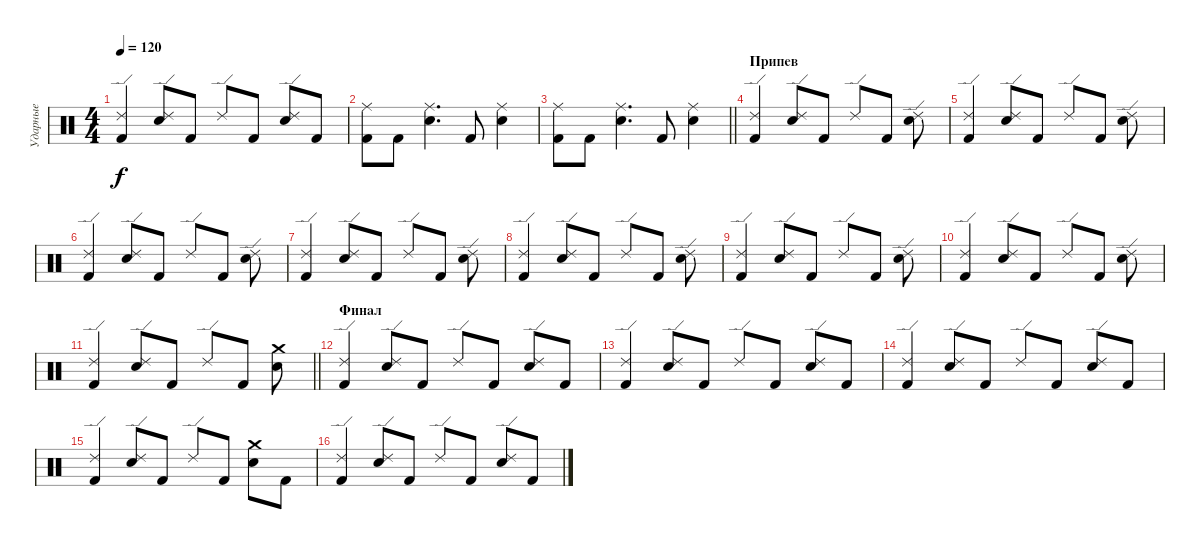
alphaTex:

\track ("Ударные" "Ударные") {instrument percussion}
\staff {score}
\articulation defaults
\ts (4 4)
\tempo 120
\clef neutral
\ks c
("Kick (hit) 2" "Ride (edge) 2").4{dy f} ("Electric Snare (hit)" "Ride (edge) 2").8 "Kick (hit) 2".8 "Ride (edge) 2".8 "Kick (hit) 2".8 ("Electric Snare (hit)" "Ride (edge) 2").8 "Kick (hit) 2".8 |
("Kick (hit) 2" "Ride (middle)").8 "Kick (hit) 2".8 ("Electric Snare (hit)" "Ride (middle)").4{d} "Kick (hit) 2".8 ("Electric Snare (hit)" "Ride (middle)").4 |
\barLineRight lightlight
("Kick (hit) 2" "Ride (middle)").8 "Kick (hit) 2".8 ("Electric Snare (hit)" "Ride (middle)").4{d} "Kick (hit) 2".8 ("Electric Snare (hit)" "Ride (middle)").4 |
\section ("" "Припев")
("Kick (hit) 2" "Ride (edge) 2").4 ("Electric Snare (hit)" "Ride (edge) 2").8 "Kick (hit) 2".8 "Ride (edge) 2".8 "Kick (hit) 2".8 ("Electric Snare (hit)" "Ride (edge) 2").8 |
("Kick (hit) 2" "Ride (edge) 2").4 ("Electric Snare (hit)" "Ride (edge) 2").8 "Kick (hit) 2".8 "Ride (edge) 2".8 "Kick (hit) 2".8 ("Electric Snare (hit)" "Ride (edge) 2").8 |
("Kick (hit) 2" "Ride (edge) 2").4 ("Electric Snare (hit)" "Ride (edge) 2").8 "Kick (hit) 2".8 "Ride (edge) 2".8 "Kick (hit) 2".8 ("Electric Snare (hit)" "Ride (edge) 2").8 |
("Kick (hit) 2" "Ride (edge) 2").4 ("Electric Snare (hit)" "Ride (edge) 2").8 "Kick (hit) 2".8 "Ride (edge) 2".8 "Kick (hit) 2".8 ("Electric Snare (hit)" "Ride (edge) 2").8 |
("Kick (hit) 2" "Ride (edge) 2").4 ("Electric Snare (hit)" "Ride (edge) 2").8 "Kick (hit) 2".8 "Ride (edge) 2".8 "Kick (hit) 2".8 ("Electric Snare (hit)" "Ride (edge) 2").8 |
("Kick (hit) 2" "Ride (edge) 2").4 ("Electric Snare (hit)" "Ride (edge) 2").8 "Kick (hit) 2".8 "Ride (edge) 2".8 "Kick (hit) 2".8 ("Electric Snare (hit)" "Ride (edge) 2").8 |
("Kick (hit) 2" "Ride (edge) 2").4 ("Electric Snare (hit)" "Ride (edge) 2").8 "Kick (hit) 2".8 "Ride (edge) 2".8 "Kick (hit) 2".8 ("Electric Snare (hit)" "Ride (edge) 2").8 |
\barLineRight lightlight
("Kick (hit) 2" "Ride (edge) 2").4 ("Electric Snare (hit)" "Ride (edge) 2").8 "Kick (hit) 2".8 "Ride (edge) 2".8 "Kick (hit) 2".8 ("Electric Snare (hit)" "Crash medium (hit)").8 |
\section ("" "Финал")
("Kick (hit) 2" "Ride (edge) 2").4 ("Electric Snare (hit)" "Ride (edge) 2").8 "Kick (hit) 2".8 "Ride (edge) 2".8 "Kick (hit) 2".8 ("Electric Snare (hit)" "Ride (edge) 2").8 "Kick (hit) 2".8 |
("Kick (hit) 2" "Ride (edge) 2").4 ("Electric Snare (hit)" "Ride (edge) 2").8 "Kick (hit) 2".8 "Ride (edge) 2".8 "Kick (hit) 2".8 ("Electric Snare (hit)" "Ride (edge) 2").8 "Kick (hit) 2".8 |
("Kick (hit) 2" "Ride (edge) 2").4 ("Electric Snare (hit)" "Ride (edge) 2").8 "Kick (hit) 2".8 "Ride (edge) 2".8 "Kick (hit) 2".8 ("Electric Snare (hit)" "Ride (edge) 2").8 "Kick (hit) 2".8 |
("Kick (hit) 2" "Ride (edge) 2").4 ("Electric Snare (hit)" "Ride (edge) 2").8 "Kick (hit) 2".8 "Ride (edge) 2".8 "Kick (hit) 2".8 ("Electric Snare (hit)" "Crash medium (hit)").8 "Kick (hit) 2".8 |
("Kick (hit) 2" "Ride (edge) 2").4 ("Electric Snare (hit)" "Ride (edge) 2").8 "Kick (hit) 2".8 "Ride (edge) 2".8 "Kick (hit) 2".8 ("Electric Snare (hit)" "Ride (edge) 2").8 "Kick (hit) 2".8
